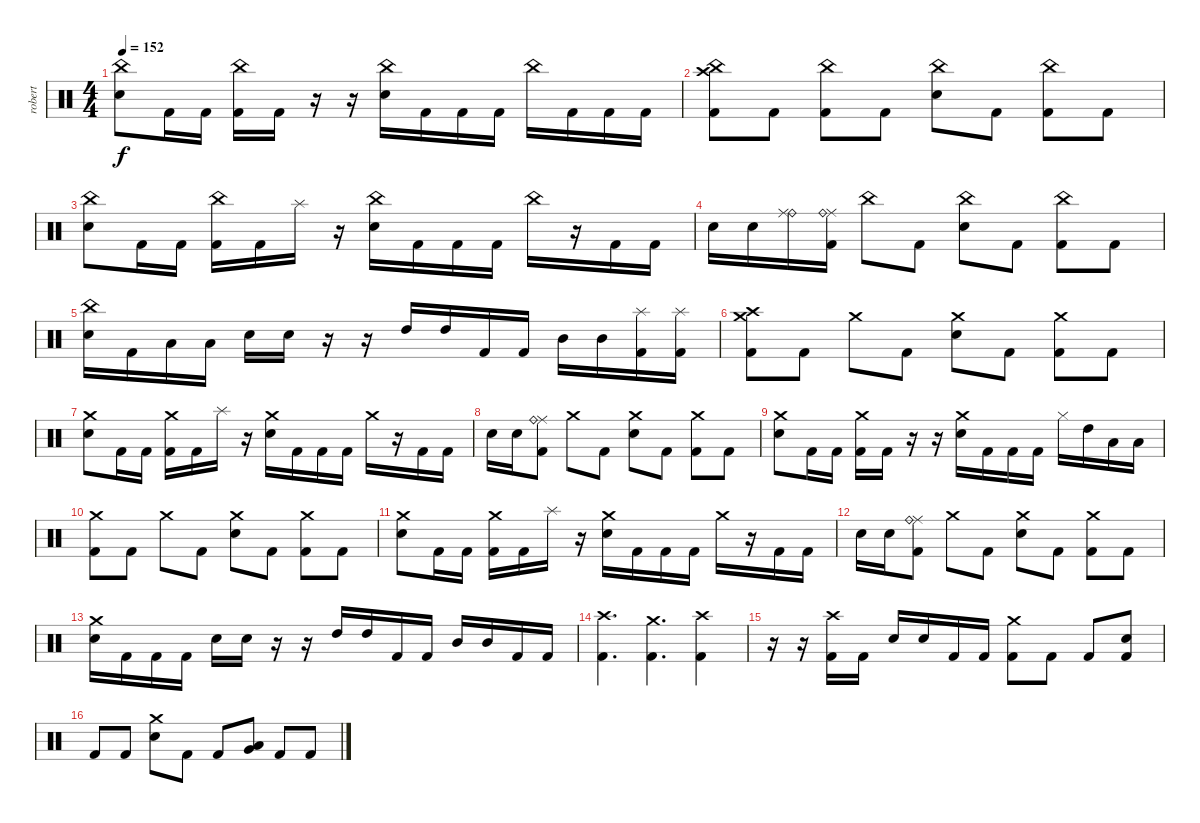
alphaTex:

\track ("robert" "robert") {instrument percussion}
\staff {score}
\articulation defaults
\ts (4 4)
\tempo 152
\clef neutral
\ks c
("China (hit)" "Electric Snare (hit)").8{dy f} "Kick (hit) 2".16 "Kick (hit) 2".16 ("China (hit)" "Kick (hit) 2").16 "Kick (hit) 2".16 r.16 r.16 ("China (hit)" "Electric Snare (hit)").16 "Kick (hit) 2".16 "Kick (hit) 2".16 "Kick (hit) 2".16 "China (hit)".16 "Kick (hit) 2".16 "Kick (hit) 2".16 "Kick (hit) 2".16 |
("Crash high (hit)" "China (hit)" "Kick (hit) 2").8 "Kick (hit) 2".8 ("Kick (hit) 2" "China (hit)").8 "Kick (hit) 2".8 ("China (hit)" "Electric Snare (hit)").8 "Kick (hit) 2".8 ("China (hit)" "Kick (hit) 2").8 "Kick (hit) 2".8 |
("China (hit)" "Electric Snare (hit)").8 "Kick (hit) 2".16 "Kick (hit) 2".16 ("China (hit)" "Kick (hit) 2").16 "Kick (hit) 2".16 "Splash (hit)".16 r.16 ("China (hit)" "Electric Snare (hit)").16 "Kick (hit) 2".16 "Kick (hit) 2".16 "Kick (hit) 2".16 "China (hit)".16 r.16 "Kick (hit) 2".16 "Kick (hit) 2".16 |
"Electric Snare (hit)".16 "Electric Snare (hit)".16 ("Ride (bell)" "Ride (middle)").16 ("Ride (middle)" "Ride (bell)" "Kick (hit) 2").16 "China (hit)".8 "Kick (hit) 2".8 ("China (hit)" "Electric Snare (hit)").8 "Kick (hit) 2".8 ("China (hit)" "Kick (hit) 2").8 "Kick (hit) 2".8 |
("China (hit)" "Electric Snare (hit)").16 "Kick (hit) 2".16 "Low Tom (hit)".16 "Low Tom (hit)".16 "Electric Snare (hit)".16 "Electric Snare (hit)".16 r.16 r.16 "High Tom (hit)".16 "High Tom (hit)".16 "Kick (hit) 2".16 "Kick (hit) 2".16 "Mid Tom (hit)".16 "Mid Tom (hit)".16 ("Splash (hit)" "Kick (hit) 2").16 ("Splash (hit)" "Kick (hit) 2").16 |
("Crash high (hit)" "Crash medium (hit)" "Kick (hit) 2").8 "Kick (hit) 2".8 "Crash medium (hit)".8 "Kick (hit) 2".8 ("Crash medium (hit)" "Electric Snare (hit)").8 "Kick (hit) 2".8 ("Crash medium (hit)" "Kick (hit) 2").8 "Kick (hit) 2".8 |
("Crash medium (hit)" "Electric Snare (hit)").8 "Kick (hit) 2".16 "Kick (hit) 2".16 ("Crash medium (hit)" "Kick (hit) 2").16 "Kick (hit) 2".16 "Splash (hit)".16 r.16 ("Crash medium (hit)" "Electric Snare (hit)").16 "Kick (hit) 2".16 "Kick (hit) 2".16 "Kick (hit) 2".16 "Crash medium (hit)".16 r.16 "Kick (hit) 2".16 "Kick (hit) 2".16 |
"Electric Snare (hit)".16 "Electric Snare (hit)".16 ("Ride (middle)" "Ride (bell)" "Kick (hit) 2").8 "Crash medium (hit)".8 "Kick (hit) 2".8 ("Crash medium (hit)" "Electric Snare (hit)").8 "Kick (hit) 2".8 ("Crash medium (hit)" "Kick (hit) 2").8 "Kick (hit) 2".8 |
("Crash medium (hit)" "Electric Snare (hit)").8 "Kick (hit) 2".16 "Kick (hit) 2".16 ("Crash medium (hit)" "Kick (hit) 2").16 "Kick (hit) 2".16 r.16 r.16 ("Crash medium (hit)" "Electric Snare (hit)").16 "Kick (hit) 2".16 "Kick (hit) 2".16 "Kick (hit) 2".16 "Hi-Hat (closed)".16 "High Tom (hit)".16 "Low Tom (hit)".16 "Low Tom (hit)".16 |
("Crash medium (hit)" "Kick (hit) 2").8 "Kick (hit) 2".8 "Crash medium (hit)".8 "Kick (hit) 2".8 ("Crash medium (hit)" "Electric Snare (hit)").8 "Kick (hit) 2".8 ("Crash medium (hit)" "Kick (hit) 2").8 "Kick (hit) 2".8 |
("Crash medium (hit)" "Electric Snare (hit)").8 "Kick (hit) 2".16 "Kick (hit) 2".16 ("Crash medium (hit)" "Kick (hit) 2").16 "Kick (hit) 2".16 "Splash (hit)".16 r.16 ("Crash medium (hit)" "Electric Snare (hit)").16 "Kick (hit) 2".16 "Kick (hit) 2".16 "Kick (hit) 2".16 "Crash medium (hit)".16 r.16 "Kick (hit) 2".16 "Kick (hit) 2".16 |
"Electric Snare (hit)".16 "Electric Snare (hit)".16 ("Ride (middle)" "Ride (bell)" "Kick (hit) 2").8 "Crash medium (hit)".8 "Kick (hit) 2".8 ("Crash medium (hit)" "Electric Snare (hit)").8 "Kick (hit) 2".8 ("Crash medium (hit)" "Kick (hit) 2").8 "Kick (hit) 2".8 |
("Crash medium (hit)" "Electric Snare (hit)").16 "Kick (hit) 2".16 "Kick (hit) 2".16 "Kick (hit) 2".16 "Electric Snare (hit)".16 "Electric Snare (hit)".16 r.16 r.16 "High Tom (hit)".16 "High Tom (hit)".16 "Kick (hit) 2".16 "Kick (hit) 2".16 "Mid Tom (hit)".16 "Mid Tom (hit)".16 "Kick (hit) 2".16 "Kick (hit) 2".16 |
("Kick (hit) 2" "Crash high (hit)").4{d} ("Crash medium (hit)" "Kick (hit) 2").4{d} ("Kick (hit) 2" "Crash high (hit)").4 |
r.16 r.16 ("Kick (hit) 2" "Crash high (hit)").16 "Kick (hit) 2".16 "Electric Snare (hit)".16 "Electric Snare (hit)".16 "Kick (hit) 2".16 "Kick (hit) 2".16 ("Crash medium (hit)" "Kick (hit) 2").8 "Kick (hit) 2".8 "Kick (hit) 2".8 ("Kick (hit) 2" "Electric Snare (hit)").8 |
"Kick (hit) 2".8 "Kick (hit) 2".8 ("Crash medium (hit)" "Electric Snare (hit)").8 "Kick (hit) 2".8 "Kick (hit) 2".8 ("Low Floor Tom (hit)" "Very Low Tom (hit)").8 "Kick (hit) 2".8 "Kick (hit) 2".8
